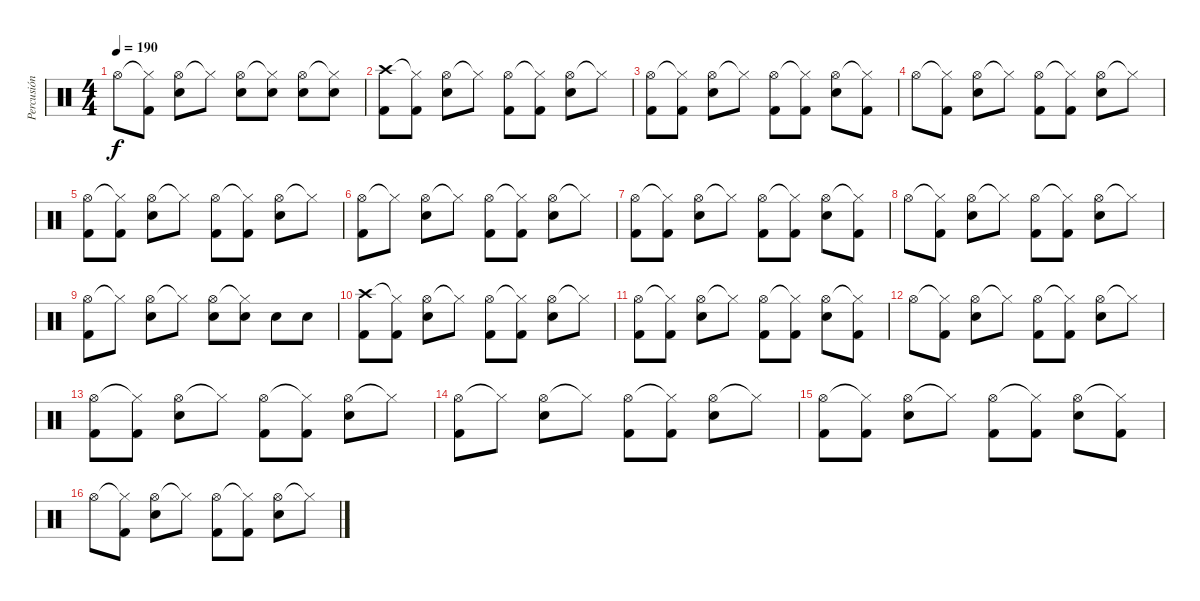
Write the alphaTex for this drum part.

\track ("Percusión" "Percusión") {instrument percussion}
\staff {score}
\articulation defaults
\ts (4 4)
\tempo 190
\clef neutral
\ks c "Hi-Hat (open)".8{dy f}
("Hi-Hat (closed)"{t} "Kick (hit) 2").8 ("Hi-Hat (open)" "Snare (hit) 2").8 "Hi-Hat (closed)"{t}.8 ("Hi-Hat (open)" "Snare (hit) 2").8 ("Hi-Hat (closed)"{t} "Snare (hit) 2").8 ("Hi-Hat (open)" "Snare (hit) 2").8 ("Hi-Hat (closed)"{t} "Snare (hit) 2").8 |
("Crash high (hit)" "Kick (hit) 2").8 ("Hi-Hat (closed)"{t} "Kick (hit) 2").8 ("Hi-Hat (open)" "Snare (hit) 2").8 "Hi-Hat (closed)"{t}.8 ("Hi-Hat (open)" "Kick (hit) 2").8 ("Hi-Hat (closed)"{t} "Kick (hit) 2").8 ("Hi-Hat (open)" "Snare (hit) 2").8 "Hi-Hat (closed)"{t}.8 |
("Hi-Hat (open)" "Kick (hit) 2").8 ("Hi-Hat (closed)"{t} "Kick (hit) 2").8 ("Hi-Hat (open)" "Snare (hit) 2").8 "Hi-Hat (closed)"{t}.8 ("Hi-Hat (open)" "Kick (hit) 2").8 ("Hi-Hat (closed)"{t} "Kick (hit) 2").8 ("Hi-Hat (open)" "Snare (hit) 2").8 ("Hi-Hat (closed)"{t} "Kick (hit) 2").8 |
"Hi-Hat (open)".8 ("Hi-Hat (closed)"{t} "Kick (hit) 2").8 ("Hi-Hat (open)" "Snare (hit) 2").8 "Hi-Hat (closed)"{t}.8 ("Hi-Hat (open)" "Kick (hit) 2").8 ("Hi-Hat (closed)"{t} "Kick (hit) 2").8 ("Hi-Hat (open)" "Snare (hit) 2").8 "Hi-Hat (closed)"{t}.8 |
("Hi-Hat (open)" "Kick (hit) 2").8 ("Hi-Hat (closed)"{t} "Kick (hit) 2").8 ("Hi-Hat (open)" "Snare (hit) 2").8 "Hi-Hat (closed)"{t}.8 ("Hi-Hat (open)" "Kick (hit) 2").8 ("Hi-Hat (closed)"{t} "Kick (hit) 2").8 ("Hi-Hat (open)" "Snare (hit) 2").8 "Hi-Hat (closed)"{t}.8 |
("Hi-Hat (open)" "Kick (hit) 2").8 "Hi-Hat (closed)"{t}.8 ("Hi-Hat (open)" "Snare (hit) 2").8 "Hi-Hat (closed)"{t}.8 ("Hi-Hat (open)" "Kick (hit) 2").8 ("Hi-Hat (closed)"{t} "Kick (hit) 2").8 ("Hi-Hat (open)" "Snare (hit) 2").8 "Hi-Hat (closed)"{t}.8 |
("Hi-Hat (open)" "Kick (hit) 2").8 ("Hi-Hat (closed)"{t} "Kick (hit) 2").8 ("Hi-Hat (open)" "Snare (hit) 2").8 "Hi-Hat (closed)"{t}.8 ("Hi-Hat (open)" "Kick (hit) 2").8 ("Hi-Hat (closed)"{t} "Kick (hit) 2").8 ("Hi-Hat (open)" "Snare (hit) 2").8 ("Hi-Hat (closed)"{t} "Kick (hit) 2").8 |
"Hi-Hat (open)".8 ("Hi-Hat (closed)"{t} "Kick (hit) 2").8 ("Hi-Hat (open)" "Snare (hit) 2").8 "Hi-Hat (closed)"{t}.8 ("Hi-Hat (open)" "Kick (hit) 2").8 ("Hi-Hat (closed)"{t} "Kick (hit) 2").8 ("Hi-Hat (open)" "Snare (hit) 2").8 "Hi-Hat (closed)"{t}.8 |
("Hi-Hat (open)" "Kick (hit) 2").8 "Hi-Hat (closed)"{t}.8 ("Hi-Hat (open)" "Snare (hit) 2").8 "Hi-Hat (closed)"{t}.8 ("Hi-Hat (open)" "Snare (hit) 2").8 ("Hi-Hat (closed)"{t} "Snare (hit) 2").8 "Snare (hit) 2".8 "Snare (hit) 2".8 |
("Crash high (hit)" "Kick (hit) 2").8 ("Hi-Hat (closed)"{t} "Kick (hit) 2").8 ("Hi-Hat (open)" "Snare (hit) 2").8 "Hi-Hat (closed)"{t}.8 ("Hi-Hat (open)" "Kick (hit) 2").8 ("Hi-Hat (closed)"{t} "Kick (hit) 2").8 ("Hi-Hat (open)" "Snare (hit) 2").8 "Hi-Hat (closed)"{t}.8 |
("Hi-Hat (open)" "Kick (hit) 2").8 ("Hi-Hat (closed)"{t} "Kick (hit) 2").8 ("Hi-Hat (open)" "Snare (hit) 2").8 "Hi-Hat (closed)"{t}.8 ("Hi-Hat (open)" "Kick (hit) 2").8 ("Hi-Hat (closed)"{t} "Kick (hit) 2").8 ("Hi-Hat (open)" "Snare (hit) 2").8 ("Hi-Hat (closed)"{t} "Kick (hit) 2").8 |
"Hi-Hat (open)".8 ("Hi-Hat (closed)"{t} "Kick (hit) 2").8 ("Hi-Hat (open)" "Snare (hit) 2").8 "Hi-Hat (closed)"{t}.8 ("Hi-Hat (open)" "Kick (hit) 2").8 ("Hi-Hat (closed)"{t} "Kick (hit) 2").8 ("Hi-Hat (open)" "Snare (hit) 2").8 "Hi-Hat (closed)"{t}.8 |
("Hi-Hat (open)" "Kick (hit) 2").8 ("Hi-Hat (closed)"{t} "Kick (hit) 2").8 ("Hi-Hat (open)" "Snare (hit) 2").8 "Hi-Hat (closed)"{t}.8 ("Hi-Hat (open)" "Kick (hit) 2").8 ("Hi-Hat (closed)"{t} "Kick (hit) 2").8 ("Hi-Hat (open)" "Snare (hit) 2").8 "Hi-Hat (closed)"{t}.8 |
("Hi-Hat (open)" "Kick (hit) 2").8 "Hi-Hat (closed)"{t}.8 ("Hi-Hat (open)" "Snare (hit) 2").8 "Hi-Hat (closed)"{t}.8 ("Hi-Hat (open)" "Kick (hit) 2").8 ("Hi-Hat (closed)"{t} "Kick (hit) 2").8 ("Hi-Hat (open)" "Snare (hit) 2").8 "Hi-Hat (closed)"{t}.8 |
("Hi-Hat (open)" "Kick (hit) 2").8 ("Hi-Hat (closed)"{t} "Kick (hit) 2").8 ("Hi-Hat (open)" "Snare (hit) 2").8 "Hi-Hat (closed)"{t}.8 ("Hi-Hat (open)" "Kick (hit) 2").8 ("Hi-Hat (closed)"{t} "Kick (hit) 2").8 ("Hi-Hat (open)" "Snare (hit) 2").8 ("Hi-Hat (closed)"{t} "Kick (hit) 2").8 |
"Hi-Hat (open)".8 ("Hi-Hat (closed)"{t} "Kick (hit) 2").8 ("Hi-Hat (open)" "Snare (hit) 2").8 "Hi-Hat (closed)"{t}.8 ("Hi-Hat (open)" "Kick (hit) 2").8 ("Hi-Hat (closed)"{t} "Kick (hit) 2").8 ("Hi-Hat (open)" "Snare (hit) 2").8 "Hi-Hat (closed)"{t}.8
